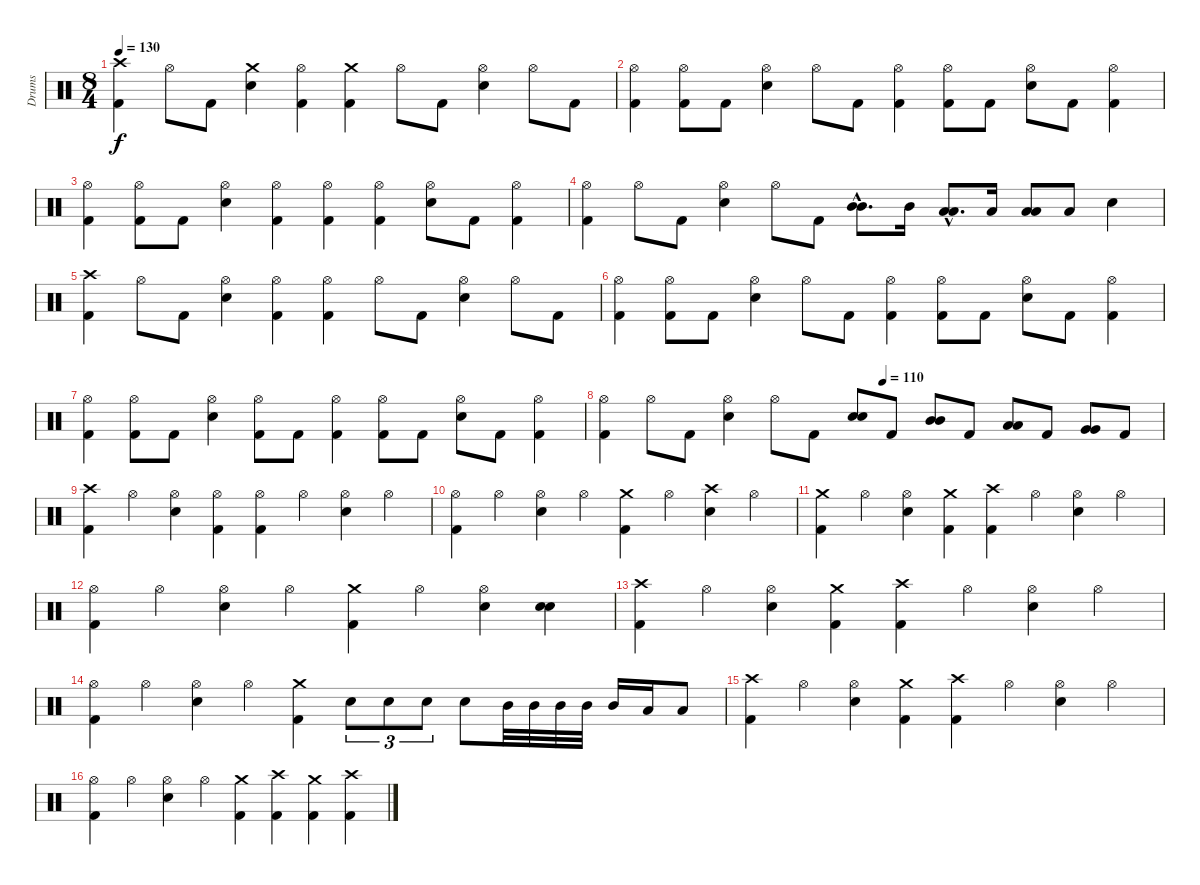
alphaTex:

\track ("Drums" "Drums") {instrument percussion}
\staff {score}
\articulation defaults
\ts (8 4)
\tempo 130
\clef neutral
\ks c
("Crash high (hit)" "Kick (hit) 2").4{dy f} "Hi-Hat (open)".8 "Kick (hit) 2".8 ("Crash medium (hit)" "Electric Snare (hit)").4 ("Hi-Hat (open)" "Kick (hit) 2").4 ("Crash medium (hit)" "Kick (hit) 2").4 "Hi-Hat (open)".8 "Kick (hit) 2".8 ("Hi-Hat (open)" "Electric Snare (hit)").4 "Hi-Hat (open)".8 "Kick (hit) 2".8 |
("Hi-Hat (open)" "Kick (hit) 2").4 ("Hi-Hat (open)" "Kick (hit) 2").8 "Kick (hit) 2".8 ("Hi-Hat (open)" "Electric Snare (hit)").4 "Hi-Hat (open)".8 "Kick (hit) 2".8 ("Hi-Hat (open)" "Kick (hit) 2").4 ("Hi-Hat (open)" "Kick (hit) 2").8 "Kick (hit) 2".8 ("Hi-Hat (open)" "Electric Snare (hit)").8 "Kick (hit) 2".8 ("Hi-Hat (open)" "Kick (hit) 2").4 |
("Hi-Hat (open)" "Kick (hit) 2").4 ("Hi-Hat (open)" "Kick (hit) 2").8 "Kick (hit) 2".8 ("Hi-Hat (open)" "Electric Snare (hit)").4 ("Hi-Hat (open)" "Kick (hit) 2").4 ("Hi-Hat (open)" "Kick (hit) 2").4 ("Hi-Hat (open)" "Kick (hit) 2").4 ("Hi-Hat (open)" "Electric Snare (hit)").8 "Kick (hit) 2".8 ("Hi-Hat (open)" "Kick (hit) 2").4 |
("Hi-Hat (open)" "Kick (hit) 2").4 "Hi-Hat (open)".8 "Kick (hit) 2".8 ("Hi-Hat (open)" "Electric Snare (hit)").4 "Hi-Hat (open)".8 "Kick (hit) 2".8 ("Mid Tom (hit)"{hac} "Mid Tom (hit)"{hac}).8{d bu 60} "Mid Tom (hit)".16 ("Low Tom (hit)"{hac} "Low Tom (hit)"{hac}).8{d bu 60} "Low Tom (hit)".16 ("Low Tom (hit)" "Low Tom (hit)").8{bu 60} "Low Tom (hit)".8 "Electric Snare (hit)".4 |
("Crash high (hit)" "Kick (hit) 2").4 "Hi-Hat (open)".8 "Kick (hit) 2".8 ("Hi-Hat (open)" "Electric Snare (hit)").4 ("Hi-Hat (open)" "Kick (hit) 2").4 ("Hi-Hat (open)" "Kick (hit) 2").4 "Hi-Hat (open)".8 "Kick (hit) 2".8 ("Hi-Hat (open)" "Electric Snare (hit)").4 "Hi-Hat (open)".8 "Kick (hit) 2".8 |
("Hi-Hat (open)" "Kick (hit) 2").4 ("Hi-Hat (open)" "Kick (hit) 2").8 "Kick (hit) 2".8 ("Hi-Hat (open)" "Electric Snare (hit)").4 "Hi-Hat (open)".8 "Kick (hit) 2".8 ("Hi-Hat (open)" "Kick (hit) 2").4 ("Hi-Hat (open)" "Kick (hit) 2").8 "Kick (hit) 2".8 ("Hi-Hat (open)" "Electric Snare (hit)").8 "Kick (hit) 2".8 ("Hi-Hat (open)" "Kick (hit) 2").4 |
("Hi-Hat (open)" "Kick (hit) 2").4 ("Hi-Hat (open)" "Kick (hit) 2").8 "Kick (hit) 2".8 ("Hi-Hat (open)" "Electric Snare (hit)").4 ("Hi-Hat (open)" "Kick (hit) 2").8 "Kick (hit) 2".8 ("Hi-Hat (open)" "Kick (hit) 2").4 ("Hi-Hat (open)" "Kick (hit) 2").8 "Kick (hit) 2".8 ("Hi-Hat (open)" "Electric Snare (hit)").8 "Kick (hit) 2".8 ("Hi-Hat (open)" "Kick (hit) 2").4 |
\tempo (110 0.5)
("Hi-Hat (open)" "Kick (hit) 2").4 "Hi-Hat (open)".8 "Kick (hit) 2".8 ("Hi-Hat (open)" "Electric Snare (hit)").4 "Hi-Hat (open)".8 "Kick (hit) 2".8 ("Electric Snare (hit)" "Electric Snare (hit)").8{bu 60} "Kick (hit) 2".8 ("Mid Tom (hit)" "Mid Tom (hit)").8{bu 60} "Kick (hit) 2".8 ("Low Tom (hit)" "Low Tom (hit)").8{bu 60} "Kick (hit) 2".8 ("Very Low Tom (hit)" "Very Low Tom (hit)").8{bu 60} "Kick (hit) 2".8 |
("Crash high (hit)" "Kick (hit) 2").4 "Hi-Hat (open)".4 ("Hi-Hat (open)" "Electric Snare (hit)").4 ("Hi-Hat (open)" "Kick (hit) 2").4 ("Hi-Hat (open)" "Kick (hit) 2").4 "Hi-Hat (open)".4 ("Hi-Hat (open)" "Electric Snare (hit)").4 "Hi-Hat (open)".4 |
("Hi-Hat (open)" "Kick (hit) 2").4 "Hi-Hat (open)".4 ("Hi-Hat (open)" "Electric Snare (hit)").4 "Hi-Hat (open)".4 ("Crash medium (hit)" "Kick (hit) 2").4 "Hi-Hat (open)".4 ("Crash high (hit)" "Electric Snare (hit)").4 "Hi-Hat (open)".4 |
("Crash medium (hit)" "Kick (hit) 2").4 "Hi-Hat (open)".4 ("Hi-Hat (open)" "Electric Snare (hit)").4 ("Crash medium (hit)" "Kick (hit) 2").4 ("Crash high (hit)" "Kick (hit) 2").4 "Hi-Hat (open)".4 ("Hi-Hat (open)" "Electric Snare (hit)").4 "Hi-Hat (open)".4 |
("Hi-Hat (open)" "Kick (hit) 2").4 "Hi-Hat (open)".4 ("Hi-Hat (open)" "Electric Snare (hit)").4 "Hi-Hat (open)".4 ("Crash medium (hit)" "Kick (hit) 2").4 "Hi-Hat (open)".4 ("Hi-Hat (open)" "Electric Snare (hit)").4 ("Electric Snare (hit)" "Electric Snare (hit)").4{bu 60} |
("Crash high (hit)" "Kick (hit) 2").4 "Hi-Hat (open)".4 ("Hi-Hat (open)" "Electric Snare (hit)").4 ("Crash medium (hit)" "Kick (hit) 2").4 ("Crash high (hit)" "Kick (hit) 2").4 "Hi-Hat (open)".4 ("Hi-Hat (open)" "Electric Snare (hit)").4 "Hi-Hat (open)".4 |
("Hi-Hat (open)" "Kick (hit) 2").4 "Hi-Hat (open)".4 ("Hi-Hat (open)" "Electric Snare (hit)").4 "Hi-Hat (open)".4 ("Crash medium (hit)" "Kick (hit) 2").4 "Electric Snare (hit)".8{tu (3 2)} "Electric Snare (hit)".8{tu (3 2)} "Electric Snare (hit)".8{tu (3 2)} "Electric Snare (hit)".8 "Mid Tom (hit)".32 "Mid Tom (hit)".32 "Mid Tom (hit)".32 "Mid Tom (hit)".32 "Mid Tom (hit)".16 "Low Tom (hit)".16 "Low Tom (hit)".8 |
("Crash high (hit)" "Kick (hit) 2").4 "Hi-Hat (open)".4 ("Hi-Hat (open)" "Electric Snare (hit)").4 ("Crash medium (hit)" "Kick (hit) 2").4 ("Crash high (hit)" "Kick (hit) 2").4 "Hi-Hat (open)".4 ("Hi-Hat (open)" "Electric Snare (hit)").4 "Hi-Hat (open)".4 |
("Hi-Hat (open)" "Kick (hit) 2").4 "Hi-Hat (open)".4 ("Hi-Hat (open)" "Electric Snare (hit)").4 "Hi-Hat (open)".4 ("Crash medium (hit)" "Kick (hit) 2").4 ("Crash high (hit)" "Kick (hit) 2").4 ("Crash medium (hit)" "Kick (hit) 2").4 ("Crash high (hit)" "Kick (hit) 2").4
